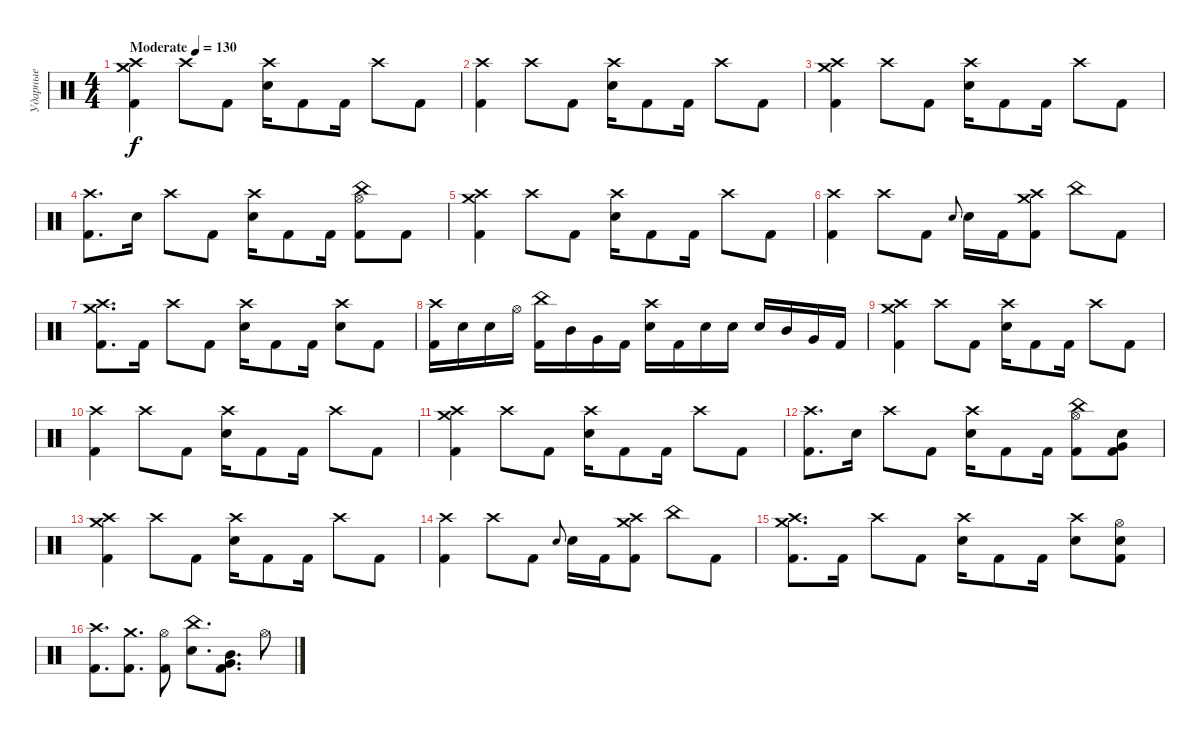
\track ("Ударные" "Ударные") {instrument percussion}
\staff {score}
\articulation defaults
\ts (4 4)
\tempo (130 "Moderate")
\clef neutral
\ks c
("Crash high (hit)" "Crash medium (hit)" "Kick (hit) 2").4{dy f} "Crash high (hit)".8 "Kick (hit) 2".8 ("Crash high (hit)" "Electric Snare (hit)").16 "Kick (hit) 2".8 "Kick (hit) 2".16 "Crash high (hit)".8 "Kick (hit) 2".8 |
("Crash high (hit)" "Kick (hit) 2").4 "Crash high (hit)".8 "Kick (hit) 2".8 ("Crash high (hit)" "Electric Snare (hit)").16 "Kick (hit) 2".8 "Kick (hit) 2".16 "Crash high (hit)".8 "Kick (hit) 2".8 |
("Crash high (hit)" "Crash medium (hit)" "Kick (hit) 2").4 "Crash high (hit)".8 "Kick (hit) 2".8 ("Crash high (hit)" "Electric Snare (hit)").16 "Kick (hit) 2".8 "Kick (hit) 2".16 "Crash high (hit)".8 "Kick (hit) 2".8 |
("Crash high (hit)" "Kick (hit) 2").8{d} "Electric Snare (hit)".16 "Crash high (hit)".8 "Kick (hit) 2".8 ("Crash high (hit)" "Electric Snare (hit)").16 "Kick (hit) 2".8 "Kick (hit) 2".16 ("Hi-Hat (open)" "China (hit)" "Kick (hit) 2").8 "Kick (hit) 2".8 |
("Crash high (hit)" "Crash medium (hit)" "Kick (hit) 2").4 "Crash high (hit)".8 "Kick (hit) 2".8 ("Crash high (hit)" "Electric Snare (hit)").16 "Kick (hit) 2".8 "Kick (hit) 2".16 "Crash high (hit)".8 "Kick (hit) 2".8 |
("Crash high (hit)" "Kick (hit) 2").4 "Crash high (hit)".8 "Kick (hit) 2".8 "Electric Snare (hit)".8{gr onbeat} "Electric Snare (hit)".16 "Kick (hit) 2".16 ("Crash medium (hit)" "Crash high (hit)" "Kick (hit) 2").8 "China (hit)".8 "Kick (hit) 2".8 |
("Crash high (hit)" "Crash medium (hit)" "Kick (hit) 2").8{d} "Kick (hit) 2".16 "Crash high (hit)".8 "Kick (hit) 2".8 ("Crash high (hit)" "Electric Snare (hit)").16 "Kick (hit) 2".8 "Kick (hit) 2".16 ("Crash high (hit)" "Electric Snare (hit)").8 "Kick (hit) 2".8 |
("Crash high (hit)" "Kick (hit) 2").16 "Electric Snare (hit)".16 "Electric Snare (hit)".16 "Hi-Hat (open)".16 ("China (hit)" "Kick (hit) 2").16 "Mid Tom (hit)".16 "Very Low Tom (hit)".16 "Kick (hit) 2".16 ("Crash high (hit)" "Electric Snare (hit)").16 "Kick (hit) 2".16 "Electric Snare (hit)".16 "Electric Snare (hit)".16 "Electric Snare (hit)".16 "Mid Tom (hit)".16 "Very Low Tom (hit)".16 "Kick (hit) 2".16 |
("Crash high (hit)" "Crash medium (hit)" "Kick (hit) 2").4 "Crash high (hit)".8 "Kick (hit) 2".8 ("Crash high (hit)" "Electric Snare (hit)").16 "Kick (hit) 2".8 "Kick (hit) 2".16 "Crash high (hit)".8 "Kick (hit) 2".8 |
("Crash high (hit)" "Kick (hit) 2").4 "Crash high (hit)".8 "Kick (hit) 2".8 ("Crash high (hit)" "Electric Snare (hit)").16 "Kick (hit) 2".8 "Kick (hit) 2".16 "Crash high (hit)".8 "Kick (hit) 2".8 |
("Crash high (hit)" "Crash medium (hit)" "Kick (hit) 2").4 "Crash high (hit)".8 "Kick (hit) 2".8 ("Crash high (hit)" "Electric Snare (hit)").16 "Kick (hit) 2".8 "Kick (hit) 2".16 "Crash high (hit)".8 "Kick (hit) 2".8 |
("Crash high (hit)" "Kick (hit) 2").8{d} "Electric Snare (hit)".16 "Crash high (hit)".8 "Kick (hit) 2".8 ("Crash high (hit)" "Electric Snare (hit)").16 "Kick (hit) 2".8 "Kick (hit) 2".16 ("Hi-Hat (open)" "China (hit)" "Kick (hit) 2").8 ("Electric Snare (hit)" "Very Low Tom (hit)" "Kick (hit) 2").8 |
("Crash high (hit)" "Crash medium (hit)" "Kick (hit) 2").4 "Crash high (hit)".8 "Kick (hit) 2".8 ("Crash high (hit)" "Electric Snare (hit)").16 "Kick (hit) 2".8 "Kick (hit) 2".16 "Crash high (hit)".8 "Kick (hit) 2".8 |
("Crash high (hit)" "Kick (hit) 2").4 "Crash high (hit)".8 "Kick (hit) 2".8 "Electric Snare (hit)".8{gr onbeat} "Electric Snare (hit)".16 "Kick (hit) 2".16 ("Crash medium (hit)" "Crash high (hit)" "Kick (hit) 2").8 "China (hit)".8 "Kick (hit) 2".8 |
("Crash high (hit)" "Crash medium (hit)" "Kick (hit) 2").8{d} "Kick (hit) 2".16 "Crash high (hit)".8 "Kick (hit) 2".8 ("Crash high (hit)" "Electric Snare (hit)").16 "Kick (hit) 2".8 "Kick (hit) 2".16 ("Crash high (hit)" "Electric Snare (hit)").8 ("Hi-Hat (open)" "Electric Snare (hit)" "Kick (hit) 2").8 |
("Crash high (hit)" "Kick (hit) 2").8{d} ("Crash medium (hit)" "Kick (hit) 2").8{d} ("Hi-Hat (open)" "Kick (hit) 2").8 ("China (hit)" "Electric Snare (hit)").8{d} ("Mid Tom (hit)" "Very Low Tom (hit)" "Kick (hit) 2").8{d} "Hi-Hat (open)".8
